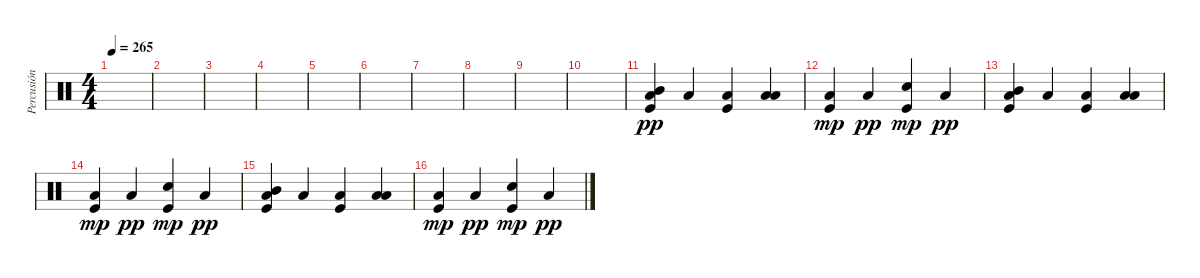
\track ("Percusión" "Percusión") {instrument percussion}
\staff {score}
\articulation defaults
\ts (4 4)
\tempo 265
\clef neutral
\ks c
|
|
|
|
|
|
|
|
|
|
("Mid Tom (hit)" "Low Floor Tom (hit)" "Kick (hit)").4{dy pp} "Low Floor Tom (hit)".4 ("Low Floor Tom (hit)" "Kick (hit)").4 ("Low Tom (hit)" "Low Floor Tom (hit)").4 |
("Low Floor Tom (hit)" "Kick (hit)").4{dy mp} "Low Floor Tom (hit)".4{dy pp} ("Electric Snare (hit)" "Kick (hit)").4{dy mp} "Low Floor Tom (hit)".4{dy pp} |
("Mid Tom (hit)" "Low Floor Tom (hit)" "Kick (hit)").4 "Low Floor Tom (hit)".4 ("Low Floor Tom (hit)" "Kick (hit)").4 ("Low Tom (hit)" "Low Floor Tom (hit)").4 |
("Low Floor Tom (hit)" "Kick (hit)").4{dy mp} "Low Floor Tom (hit)".4{dy pp} ("Electric Snare (hit)" "Kick (hit)").4{dy mp} "Low Floor Tom (hit)".4{dy pp} |
("Mid Tom (hit)" "Low Floor Tom (hit)" "Kick (hit)").4 "Low Floor Tom (hit)".4 ("Low Floor Tom (hit)" "Kick (hit)").4 ("Low Tom (hit)" "Low Floor Tom (hit)").4 |
("Low Floor Tom (hit)" "Kick (hit)").4{dy mp} "Low Floor Tom (hit)".4{dy pp} ("Electric Snare (hit)" "Kick (hit)").4{dy mp} "Low Floor Tom (hit)".4{dy pp}
